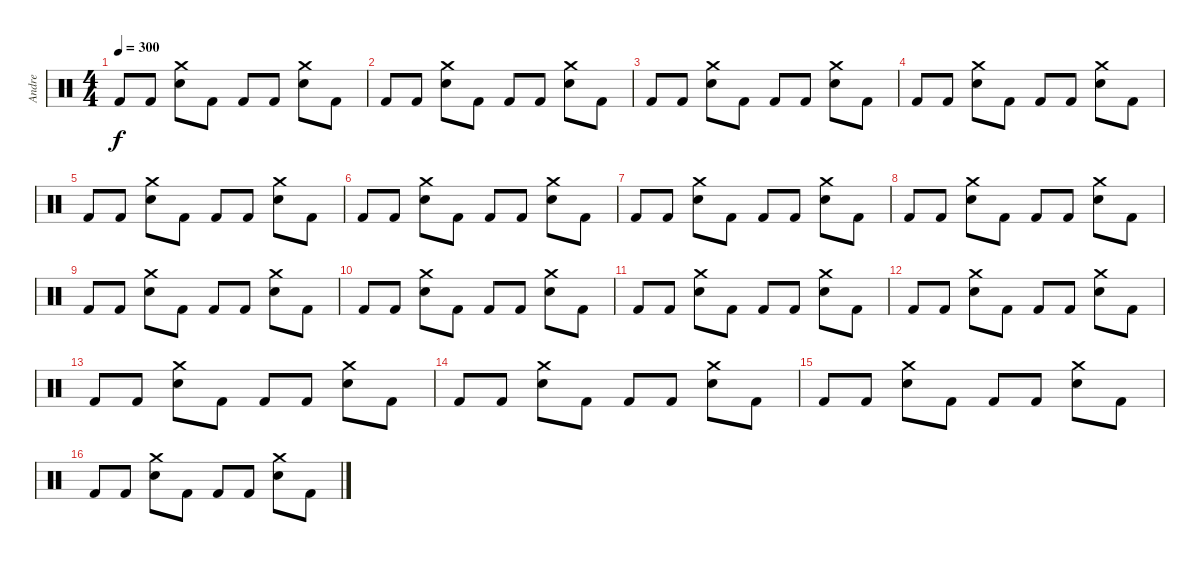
\track ("Andre" "Andre") {instrument percussion}
\staff {score}
\articulation defaults
\ts (4 4)
\tempo 300
\clef neutral
\ks c "Kick (hit) 2".8{dy f} "Kick (hit) 2".8
("Crash medium (hit)" "Electric Snare (hit)").8 "Kick (hit) 2".8 "Kick (hit) 2".8 "Kick (hit) 2".8 ("Crash medium (hit)" "Electric Snare (hit)").8 "Kick (hit) 2".8 |
"Kick (hit) 2".8 "Kick (hit) 2".8 ("Crash medium (hit)" "Electric Snare (hit)").8 "Kick (hit) 2".8 "Kick (hit) 2".8 "Kick (hit) 2".8 ("Crash medium (hit)" "Electric Snare (hit)").8 "Kick (hit) 2".8 |
"Kick (hit) 2".8 "Kick (hit) 2".8 ("Crash medium (hit)" "Electric Snare (hit)").8 "Kick (hit) 2".8 "Kick (hit) 2".8 "Kick (hit) 2".8 ("Crash medium (hit)" "Electric Snare (hit)").8 "Kick (hit) 2".8 |
"Kick (hit) 2".8 "Kick (hit) 2".8 ("Crash medium (hit)" "Electric Snare (hit)").8 "Kick (hit) 2".8 "Kick (hit) 2".8 "Kick (hit) 2".8 ("Crash medium (hit)" "Electric Snare (hit)").8 "Kick (hit) 2".8 |
"Kick (hit) 2".8 "Kick (hit) 2".8 ("Crash medium (hit)" "Electric Snare (hit)").8 "Kick (hit) 2".8 "Kick (hit) 2".8 "Kick (hit) 2".8 ("Crash medium (hit)" "Electric Snare (hit)").8 "Kick (hit) 2".8 |
"Kick (hit) 2".8 "Kick (hit) 2".8 ("Crash medium (hit)" "Electric Snare (hit)").8 "Kick (hit) 2".8 "Kick (hit) 2".8 "Kick (hit) 2".8 ("Crash medium (hit)" "Electric Snare (hit)").8 "Kick (hit) 2".8 |
"Kick (hit) 2".8 "Kick (hit) 2".8 ("Crash medium (hit)" "Electric Snare (hit)").8 "Kick (hit) 2".8 "Kick (hit) 2".8 "Kick (hit) 2".8 ("Crash medium (hit)" "Electric Snare (hit)").8 "Kick (hit) 2".8 |
"Kick (hit) 2".8 "Kick (hit) 2".8 ("Crash medium (hit)" "Electric Snare (hit)").8 "Kick (hit) 2".8 "Kick (hit) 2".8 "Kick (hit) 2".8 ("Crash medium (hit)" "Electric Snare (hit)").8 "Kick (hit) 2".8 |
"Kick (hit) 2".8 "Kick (hit) 2".8 ("Crash medium (hit)" "Electric Snare (hit)").8 "Kick (hit) 2".8 "Kick (hit) 2".8 "Kick (hit) 2".8 ("Crash medium (hit)" "Electric Snare (hit)").8 "Kick (hit) 2".8 |
"Kick (hit) 2".8 "Kick (hit) 2".8 ("Crash medium (hit)" "Electric Snare (hit)").8 "Kick (hit) 2".8 "Kick (hit) 2".8 "Kick (hit) 2".8 ("Crash medium (hit)" "Electric Snare (hit)").8 "Kick (hit) 2".8 |
"Kick (hit) 2".8 "Kick (hit) 2".8 ("Crash medium (hit)" "Electric Snare (hit)").8 "Kick (hit) 2".8 "Kick (hit) 2".8 "Kick (hit) 2".8 ("Crash medium (hit)" "Electric Snare (hit)").8 "Kick (hit) 2".8 |
"Kick (hit) 2".8 "Kick (hit) 2".8 ("Crash medium (hit)" "Electric Snare (hit)").8 "Kick (hit) 2".8 "Kick (hit) 2".8 "Kick (hit) 2".8 ("Crash medium (hit)" "Electric Snare (hit)").8 "Kick (hit) 2".8 |
"Kick (hit) 2".8 "Kick (hit) 2".8 ("Crash medium (hit)" "Electric Snare (hit)").8 "Kick (hit) 2".8 "Kick (hit) 2".8 "Kick (hit) 2".8 ("Crash medium (hit)" "Electric Snare (hit)").8 "Kick (hit) 2".8 |
"Kick (hit) 2".8 "Kick (hit) 2".8 ("Crash medium (hit)" "Electric Snare (hit)").8 "Kick (hit) 2".8 "Kick (hit) 2".8 "Kick (hit) 2".8 ("Crash medium (hit)" "Electric Snare (hit)").8 "Kick (hit) 2".8 |
"Kick (hit) 2".8 "Kick (hit) 2".8 ("Crash medium (hit)" "Electric Snare (hit)").8 "Kick (hit) 2".8 "Kick (hit) 2".8 "Kick (hit) 2".8 ("Crash medium (hit)" "Electric Snare (hit)").8 "Kick (hit) 2".8 |
"Kick (hit) 2".8 "Kick (hit) 2".8 ("Crash medium (hit)" "Electric Snare (hit)").8 "Kick (hit) 2".8 "Kick (hit) 2".8 "Kick (hit) 2".8 ("Crash medium (hit)" "Electric Snare (hit)").8 "Kick (hit) 2".8
